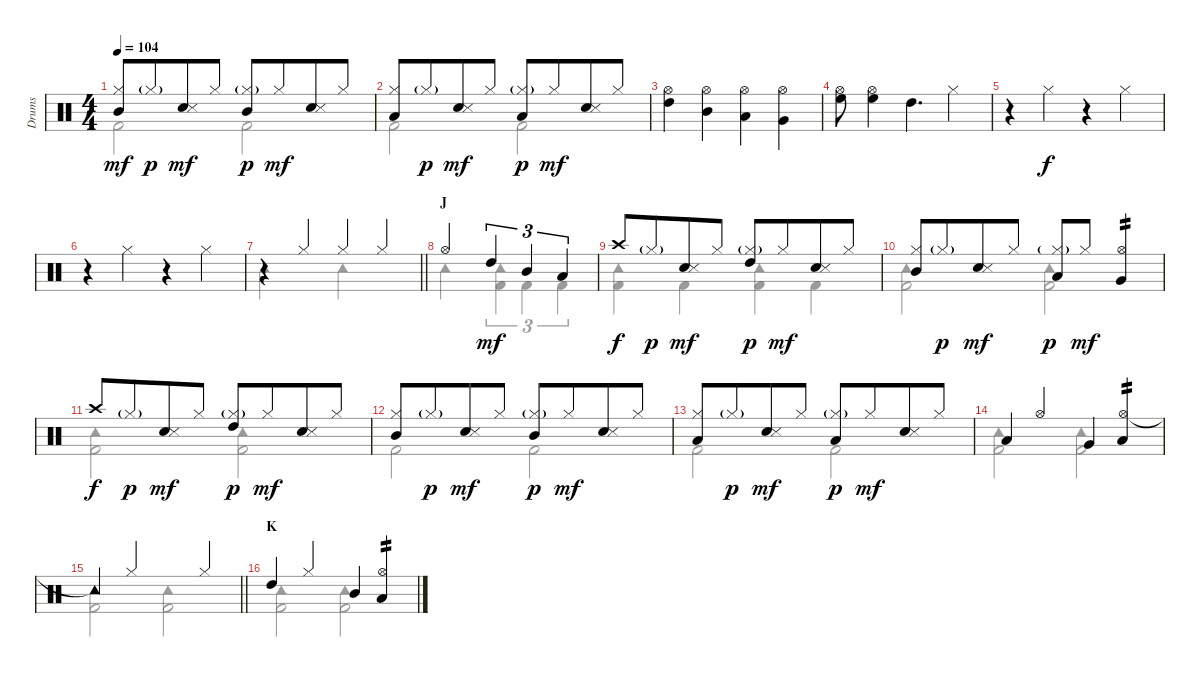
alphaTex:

\track ("Drums" "Drums") {instrument percussion}
\staff {score}
\articulation defaults
\voice
\ts (4 4)
\tempo 104
\clef neutral
\ks c
("Hi-Hat (closed)" "Mid Tom (hit)").8{dy mf} "Hi-Hat (closed)"{g}.8{dy p beam merge} ("Electric Snare (hit)" "Snare (side stick) 3").8{dy mf} "Hi-Hat (closed)".8 ("Hi-Hat (closed)"{g} "Mid Tom (hit)").8{dy p} "Hi-Hat (closed)".8{dy mf beam merge} ("Electric Snare (hit)" "Snare (side stick) 3").8 "Hi-Hat (closed)".8 |
("Hi-Hat (closed)" "Low Tom (hit)").8 "Hi-Hat (closed)"{g}.8{dy p beam merge} ("Electric Snare (hit)" "Snare (side stick) 3").8{dy mf} "Hi-Hat (closed)".8 ("Hi-Hat (closed)"{g} "Low Tom (hit)").8{dy p} "Hi-Hat (closed)".8{dy mf beam merge} ("Electric Snare (hit)" "Snare (side stick) 3").8 "Hi-Hat (closed)".8 |
("Hi-Hat (open)" "High Tom (hit)").4 ("Hi-Hat (open)" "Mid Tom (hit)").4 ("Hi-Hat (open)" "Low Tom (hit)").4 ("Hi-Hat (open)" "Very Low Tom (hit)").4 |
("Hi-Hat (open)" "High Floor Tom (hit)").8 ("Hi-Hat (open)" "High Floor Tom (hit)").4 "High Tom (hit)".4{d} "Hi-Hat (closed)".4 |
r.4 "Hi-Hat (closed)".4{dy f} r.4 "Hi-Hat (closed)".4 |
r.4 "Hi-Hat (closed)".4 r.4 "Hi-Hat (closed)".4 |
\barLineRight lightlight
r.4 "Hi-Hat (closed)".4 "Hi-Hat (closed)".4 "Hi-Hat (closed)".4 |
\section ("" "J")
"Hi-Hat (open)".2 "High Tom (hit)".4{tu (3 2) dy mf} "Mid Tom (hit)".4{tu (3 2)} "Low Tom (hit)".4{tu (3 2)} |
"Crash high (hit)".8{dy f} "Hi-Hat (closed)"{g}.8{dy p beam merge} ("Electric Snare (hit)" "Snare (side stick) 3").8{dy mf} "Hi-Hat (closed)".8 ("Hi-Hat (closed)"{g} "High Tom (hit)").8{dy p} "Hi-Hat (closed)".8{dy mf beam merge} ("Electric Snare (hit)" "Snare (side stick) 3").8 "Hi-Hat (closed)".8 |
("Hi-Hat (closed)" "Mid Tom (hit)").8 "Hi-Hat (closed)"{g}.8{dy p beam merge} ("Electric Snare (hit)" "Snare (side stick) 3").8{dy mf} "Hi-Hat (closed)".8 ("Hi-Hat (closed)"{g} "Low Tom (hit)").8{dy p} "Hi-Hat (closed)".8{dy mf} ("Hi-Hat (open)" "Very Low Tom (hit)").4{tp 2} |
"Crash high (hit)".8{dy f} "Hi-Hat (closed)"{g}.8{dy p beam merge} ("Electric Snare (hit)" "Snare (side stick) 3").8{dy mf} "Hi-Hat (closed)".8 ("Hi-Hat (closed)"{g} "High Tom (hit)").8{dy p} "Hi-Hat (closed)".8{dy mf beam merge} ("Electric Snare (hit)" "Snare (side stick) 3").8 "Hi-Hat (closed)".8 |
("Hi-Hat (closed)" "Mid Tom (hit)").8 "Hi-Hat (closed)"{g}.8{dy p beam merge} ("Electric Snare (hit)" "Snare (side stick) 3").8{dy mf} "Hi-Hat (closed)".8 ("Hi-Hat (closed)"{g} "Mid Tom (hit)").8{dy p} "Hi-Hat (closed)".8{dy mf beam merge} ("Electric Snare (hit)" "Snare (side stick) 3").8 "Hi-Hat (closed)".8 |
("Hi-Hat (closed)" "Low Tom (hit)").8 "Hi-Hat (closed)"{g}.8{dy p beam merge} ("Electric Snare (hit)" "Snare (side stick) 3").8{dy mf} "Hi-Hat (closed)".8 ("Hi-Hat (closed)"{g} "Low Tom (hit)").8{dy p} "Hi-Hat (closed)".8{dy mf beam merge} ("Electric Snare (hit)" "Snare (side stick) 3").8 "Hi-Hat (closed)".8 |
"Low Tom (hit)".4 "Hi-Hat (open)".4 "Very Low Tom (hit)".4 ("Hi-Hat (open)" "Low Floor Tom (hit)").4{tp 2} |
\barLineRight lightlight "Tambourine (hit)"{t}.4 "Hi-Hat (closed)".2 "Hi-Hat (closed)".4
|
\section ("" "K")
"High Tom (hit)".4 "Hi-Hat (closed)".4 "Mid Tom (hit)".4 ("Hi-Hat (open)" "Low Tom (hit)").4{tp 2}
\voice
\clef neutral
\ottava regular
\simile none
\ks c "Kick (hit) 2".2{dy mf} "Kick (hit) 2".2
|
"Kick (hit) 2".2 "Kick (hit) 2".2 |
|
|
|
|
\barLineRight lightlight "Tambourine (hit)".2 "Tambourine (hit)".2
|
"Tambourine (hit)".2 ("Tambourine (hit)" "Kick (hit) 2").4{tu (3 2)} "Kick (hit) 2".4{tu (3 2)} "Kick (hit) 2".4{tu (3 2)} |
("Tambourine (hit)" "Kick (hit) 2").4 "Kick (hit) 2".4 ("Tambourine (hit)" "Kick (hit) 2").4 "Kick (hit) 2".4 |
("Tambourine (hit)" "Kick (hit) 2").2 ("Tambourine (hit)" "Kick (hit) 2").2 |
("Tambourine (hit)" "Kick (hit) 2").2 ("Tambourine (hit)" "Kick (hit) 2").2 |
"Kick (hit) 2".2 "Kick (hit) 2".2 |
"Kick (hit) 2".2 "Kick (hit) 2".2 |
("Tambourine (hit)" "Kick (hit) 2").2 ("Tambourine (hit)" "Kick (hit) 2").2 |
\barLineRight lightlight
("Tambourine (hit)" "Kick (hit) 2").2 ("Tambourine (hit)" "Kick (hit) 2").2 |
("Tambourine (hit)" "Kick (hit) 2").2 ("Tambourine (hit)" "Kick (hit) 2").2
